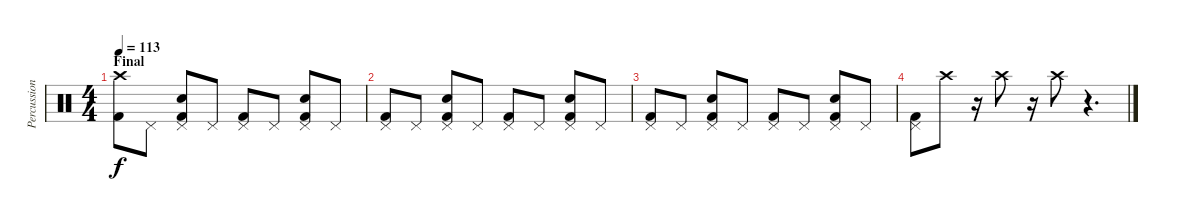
\track ("Percussions" "Percussion") {instrument percussion}
\staff {score}
\articulation defaults
\ts (4 4)
\section ("" "Final")
\tempo 113
\clef neutral
\ks c
("Crash high (hit)" "Kick (hit) 2").8{dy f} "Pedal Hi-Hat (hit)".8 ("Pedal Hi-Hat (hit)" "Electric Snare (hit)" "Kick (hit) 2").8 "Pedal Hi-Hat (hit)".8 ("Pedal Hi-Hat (hit)" "Kick (hit) 2").8 "Pedal Hi-Hat (hit)".8 ("Pedal Hi-Hat (hit)" "Electric Snare (hit)" "Kick (hit) 2").8 "Pedal Hi-Hat (hit)".8 |
("Pedal Hi-Hat (hit)" "Kick (hit) 2").8 "Pedal Hi-Hat (hit)".8 ("Pedal Hi-Hat (hit)" "Electric Snare (hit)" "Kick (hit) 2").8 "Pedal Hi-Hat (hit)".8 ("Pedal Hi-Hat (hit)" "Kick (hit) 2").8 "Pedal Hi-Hat (hit)".8 ("Pedal Hi-Hat (hit)" "Electric Snare (hit)" "Kick (hit) 2").8 "Pedal Hi-Hat (hit)".8 |
("Pedal Hi-Hat (hit)" "Kick (hit) 2").8 "Pedal Hi-Hat (hit)".8 ("Pedal Hi-Hat (hit)" "Electric Snare (hit)" "Kick (hit) 2").8 "Pedal Hi-Hat (hit)".8 ("Pedal Hi-Hat (hit)" "Kick (hit) 2").8 "Pedal Hi-Hat (hit)".8 ("Pedal Hi-Hat (hit)" "Electric Snare (hit)" "Kick (hit) 2").8 "Pedal Hi-Hat (hit)".8 |
("Pedal Hi-Hat (hit)" "Kick (hit) 2").8 "Crash high (hit)".8 r.16 "Crash high (hit)".8 r.16 "Crash high (hit)".8 r.4{d}
